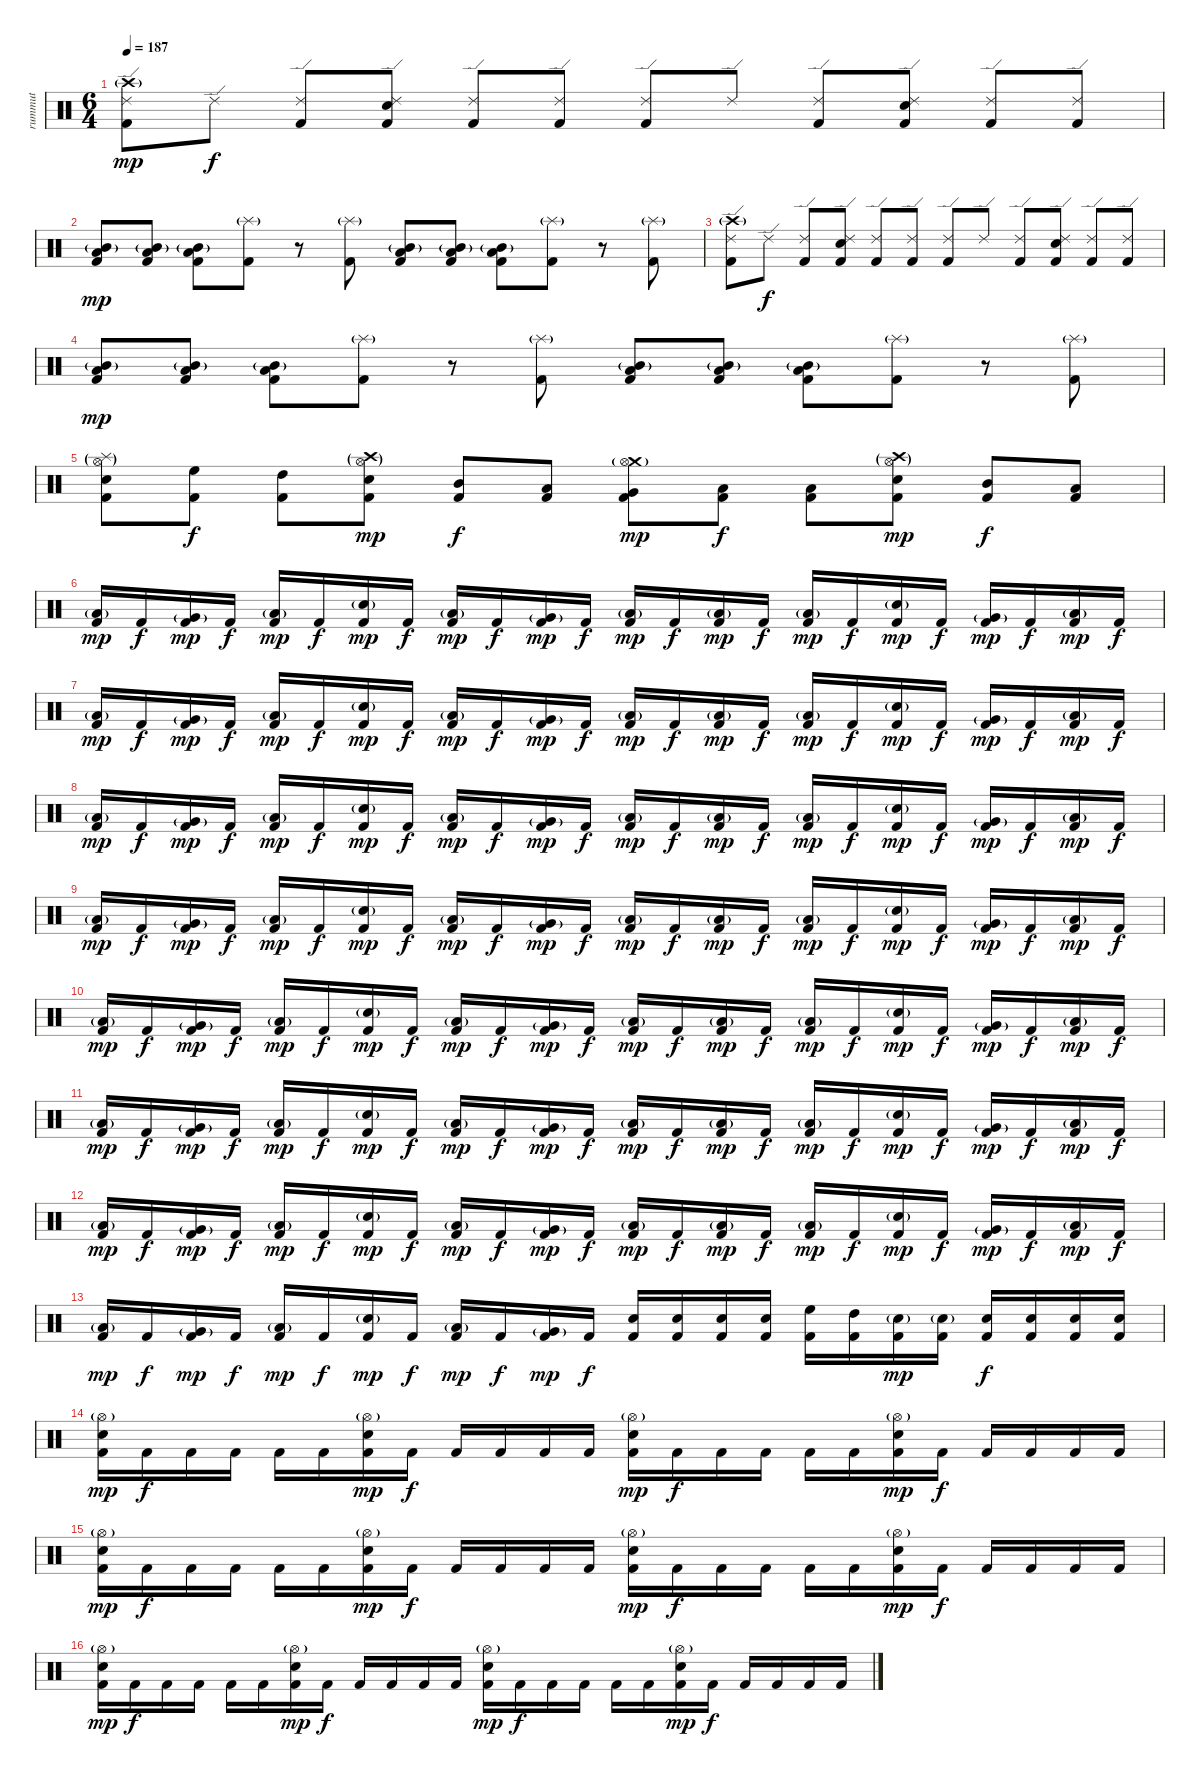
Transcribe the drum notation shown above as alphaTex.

\track ("rummut" "rummut") {instrument percussion}
\staff {score}
\articulation defaults
\ts (6 4)
\tempo 187
\clef neutral
\ks c
("Kick (hit) 2" "Ride (edge) 2" "Crash high (hit)"{g}).8{dy mp} "Ride (edge) 2".8{dy f} ("Kick (hit) 2" "Ride (edge) 2").8 ("Kick (hit) 2" "Ride (edge) 2" "Snare (hit) 2").8 ("Kick (hit) 2" "Ride (edge) 2").8 ("Kick (hit) 2" "Ride (edge) 2").8 ("Kick (hit) 2" "Ride (edge) 2").8 "Ride (edge) 2".8 ("Kick (hit) 2" "Ride (edge) 2").8 ("Kick (hit) 2" "Ride (edge) 2" "Snare (hit) 2").8 ("Kick (hit) 2" "Ride (edge) 2").8 ("Kick (hit) 2" "Ride (edge) 2").8 |
("Kick (hit) 2" "Low Tom (hit)" "Mid Tom (hit)"{g}).8{dy mp} ("Kick (hit) 2" "Low Tom (hit)" "Mid Tom (hit)"{g}).8 ("Kick (hit) 2" "Low Tom (hit)" "Mid Tom (hit)"{g}).8 ("Kick (hit) 2" "Splash (hit)"{g}).8 r.8 ("Kick (hit) 2" "Splash (hit)"{g}).8 ("Kick (hit) 2" "Low Tom (hit)" "Mid Tom (hit)"{g}).8 ("Kick (hit) 2" "Low Tom (hit)" "Mid Tom (hit)"{g}).8 ("Kick (hit) 2" "Low Tom (hit)" "Mid Tom (hit)"{g}).8 ("Kick (hit) 2" "Splash (hit)"{g}).8 r.8 ("Kick (hit) 2" "Splash (hit)"{g}).8 |
("Kick (hit) 2" "Ride (edge) 2" "Crash high (hit)"{g}).8 "Ride (edge) 2".8{dy f} ("Kick (hit) 2" "Ride (edge) 2").8 ("Kick (hit) 2" "Ride (edge) 2" "Snare (hit) 2").8 ("Kick (hit) 2" "Ride (edge) 2").8 ("Kick (hit) 2" "Ride (edge) 2").8 ("Kick (hit) 2" "Ride (edge) 2").8 "Ride (edge) 2".8 ("Kick (hit) 2" "Ride (edge) 2").8 ("Kick (hit) 2" "Ride (edge) 2" "Snare (hit) 2").8 ("Kick (hit) 2" "Ride (edge) 2").8 ("Kick (hit) 2" "Ride (edge) 2").8 |
("Kick (hit) 2" "Low Tom (hit)" "Mid Tom (hit)"{g}).8{dy mp} ("Kick (hit) 2" "Low Tom (hit)" "Mid Tom (hit)"{g}).8 ("Kick (hit) 2" "Low Tom (hit)" "Mid Tom (hit)"{g}).8 ("Kick (hit) 2" "Splash (hit)"{g}).8 r.8 ("Kick (hit) 2" "Splash (hit)"{g}).8 ("Kick (hit) 2" "Low Tom (hit)" "Mid Tom (hit)"{g}).8 ("Kick (hit) 2" "Low Tom (hit)" "Mid Tom (hit)"{g}).8 ("Kick (hit) 2" "Low Tom (hit)" "Mid Tom (hit)"{g}).8 ("Kick (hit) 2" "Splash (hit)"{g}).8 r.8 ("Kick (hit) 2" "Splash (hit)"{g}).8 |
("Kick (hit) 2" "Snare (hit) 2" "Splash (hit)"{g} "Hi-Hat (open)"{g}).8 ("Kick (hit) 2" "High Floor Tom (hit)").8{dy f} ("Kick (hit) 2" "High Tom (hit)").8 ("Kick (hit) 2" "Snare (hit) 2" "Crash high (hit)"{g} "Hi-Hat (open)"{g}).8{dy mp} ("Kick (hit) 2" "Mid Tom (hit)").8{dy f} ("Kick (hit) 2" "Low Tom (hit)").8 ("Kick (hit) 2" "Very Low Tom (hit)" "Crash medium (hit)"{g} "Hi-Hat (open)"{g}).8{dy mp} ("Kick (hit) 2" "Low Floor Tom (hit)").8{dy f} ("Kick (hit) 2" "Low Tom (hit)").8 ("Kick (hit) 2" "Snare (hit) 2" "Crash high (hit)"{g} "Hi-Hat (open)"{g}).8{dy mp} ("Kick (hit) 2" "Mid Tom (hit)").8{dy f} ("Kick (hit) 2" "Low Tom (hit)").8 |
("Kick (hit) 2" "Low Tom (hit)"{g}).16{dy mp} "Kick (hit) 2".16{dy f} ("Kick (hit) 2" "Very Low Tom (hit)"{g}).16{dy mp} "Kick (hit) 2".16{dy f} ("Kick (hit) 2" "Low Floor Tom (hit)"{g}).16{dy mp} "Kick (hit) 2".16{dy f} ("Kick (hit) 2" "Snare (hit) 2"{g}).16{dy mp} "Kick (hit) 2".16{dy f} ("Kick (hit) 2" "Low Tom (hit)"{g}).16{dy mp} "Kick (hit) 2".16{dy f} ("Kick (hit) 2" "Very Low Tom (hit)"{g}).16{dy mp} "Kick (hit) 2".16{dy f} ("Kick (hit) 2" "Low Floor Tom (hit)"{g}).16{dy mp} "Kick (hit) 2".16{dy f} ("Kick (hit) 2" "Low Tom (hit)"{g}).16{dy mp} "Kick (hit) 2".16{dy f} ("Kick (hit) 2" "Low Floor Tom (hit)"{g}).16{dy mp} "Kick (hit) 2".16{dy f} ("Kick (hit) 2" "Snare (hit) 2"{g}).16{dy mp} "Kick (hit) 2".16{dy f} ("Kick (hit) 2" "Very Low Tom (hit)"{g}).16{dy mp} "Kick (hit) 2".16{dy f} ("Kick (hit) 2" "Low Tom (hit)"{g}).16{dy mp} "Kick (hit) 2".16{dy f} |
("Kick (hit) 2" "Low Tom (hit)"{g}).16{dy mp} "Kick (hit) 2".16{dy f} ("Kick (hit) 2" "Very Low Tom (hit)"{g}).16{dy mp} "Kick (hit) 2".16{dy f} ("Kick (hit) 2" "Low Floor Tom (hit)"{g}).16{dy mp} "Kick (hit) 2".16{dy f} ("Kick (hit) 2" "Snare (hit) 2"{g}).16{dy mp} "Kick (hit) 2".16{dy f} ("Kick (hit) 2" "Low Tom (hit)"{g}).16{dy mp} "Kick (hit) 2".16{dy f} ("Kick (hit) 2" "Very Low Tom (hit)"{g}).16{dy mp} "Kick (hit) 2".16{dy f} ("Kick (hit) 2" "Low Floor Tom (hit)"{g}).16{dy mp} "Kick (hit) 2".16{dy f} ("Kick (hit) 2" "Low Tom (hit)"{g}).16{dy mp} "Kick (hit) 2".16{dy f} ("Kick (hit) 2" "Low Floor Tom (hit)"{g}).16{dy mp} "Kick (hit) 2".16{dy f} ("Kick (hit) 2" "Snare (hit) 2"{g}).16{dy mp} "Kick (hit) 2".16{dy f} ("Kick (hit) 2" "Very Low Tom (hit)"{g}).16{dy mp} "Kick (hit) 2".16{dy f} ("Kick (hit) 2" "Low Tom (hit)"{g}).16{dy mp} "Kick (hit) 2".16{dy f} |
("Kick (hit) 2" "Low Tom (hit)"{g}).16{dy mp} "Kick (hit) 2".16{dy f} ("Kick (hit) 2" "Very Low Tom (hit)"{g}).16{dy mp} "Kick (hit) 2".16{dy f} ("Kick (hit) 2" "Low Floor Tom (hit)"{g}).16{dy mp} "Kick (hit) 2".16{dy f} ("Kick (hit) 2" "Snare (hit) 2"{g}).16{dy mp} "Kick (hit) 2".16{dy f} ("Kick (hit) 2" "Low Tom (hit)"{g}).16{dy mp} "Kick (hit) 2".16{dy f} ("Kick (hit) 2" "Very Low Tom (hit)"{g}).16{dy mp} "Kick (hit) 2".16{dy f} ("Kick (hit) 2" "Low Floor Tom (hit)"{g}).16{dy mp} "Kick (hit) 2".16{dy f} ("Kick (hit) 2" "Low Tom (hit)"{g}).16{dy mp} "Kick (hit) 2".16{dy f} ("Kick (hit) 2" "Low Floor Tom (hit)"{g}).16{dy mp} "Kick (hit) 2".16{dy f} ("Kick (hit) 2" "Snare (hit) 2"{g}).16{dy mp} "Kick (hit) 2".16{dy f} ("Kick (hit) 2" "Very Low Tom (hit)"{g}).16{dy mp} "Kick (hit) 2".16{dy f} ("Kick (hit) 2" "Low Tom (hit)"{g}).16{dy mp} "Kick (hit) 2".16{dy f} |
("Kick (hit) 2" "Low Tom (hit)"{g}).16{dy mp} "Kick (hit) 2".16{dy f} ("Kick (hit) 2" "Very Low Tom (hit)"{g}).16{dy mp} "Kick (hit) 2".16{dy f} ("Kick (hit) 2" "Low Floor Tom (hit)"{g}).16{dy mp} "Kick (hit) 2".16{dy f} ("Kick (hit) 2" "Snare (hit) 2"{g}).16{dy mp} "Kick (hit) 2".16{dy f} ("Kick (hit) 2" "Low Tom (hit)"{g}).16{dy mp} "Kick (hit) 2".16{dy f} ("Kick (hit) 2" "Very Low Tom (hit)"{g}).16{dy mp} "Kick (hit) 2".16{dy f} ("Kick (hit) 2" "Low Floor Tom (hit)"{g}).16{dy mp} "Kick (hit) 2".16{dy f} ("Kick (hit) 2" "Low Tom (hit)"{g}).16{dy mp} "Kick (hit) 2".16{dy f} ("Kick (hit) 2" "Low Floor Tom (hit)"{g}).16{dy mp} "Kick (hit) 2".16{dy f} ("Kick (hit) 2" "Snare (hit) 2"{g}).16{dy mp} "Kick (hit) 2".16{dy f} ("Kick (hit) 2" "Very Low Tom (hit)"{g}).16{dy mp} "Kick (hit) 2".16{dy f} ("Kick (hit) 2" "Low Tom (hit)"{g}).16{dy mp} "Kick (hit) 2".16{dy f} |
("Kick (hit) 2" "Low Tom (hit)"{g}).16{dy mp} "Kick (hit) 2".16{dy f} ("Kick (hit) 2" "Very Low Tom (hit)"{g}).16{dy mp} "Kick (hit) 2".16{dy f} ("Kick (hit) 2" "Low Floor Tom (hit)"{g}).16{dy mp} "Kick (hit) 2".16{dy f} ("Kick (hit) 2" "Snare (hit) 2"{g}).16{dy mp} "Kick (hit) 2".16{dy f} ("Kick (hit) 2" "Low Tom (hit)"{g}).16{dy mp} "Kick (hit) 2".16{dy f} ("Kick (hit) 2" "Very Low Tom (hit)"{g}).16{dy mp} "Kick (hit) 2".16{dy f} ("Kick (hit) 2" "Low Floor Tom (hit)"{g}).16{dy mp} "Kick (hit) 2".16{dy f} ("Kick (hit) 2" "Low Tom (hit)"{g}).16{dy mp} "Kick (hit) 2".16{dy f} ("Kick (hit) 2" "Low Floor Tom (hit)"{g}).16{dy mp} "Kick (hit) 2".16{dy f} ("Kick (hit) 2" "Snare (hit) 2"{g}).16{dy mp} "Kick (hit) 2".16{dy f} ("Kick (hit) 2" "Very Low Tom (hit)"{g}).16{dy mp} "Kick (hit) 2".16{dy f} ("Kick (hit) 2" "Low Tom (hit)"{g}).16{dy mp} "Kick (hit) 2".16{dy f} |
("Kick (hit) 2" "Low Tom (hit)"{g}).16{dy mp} "Kick (hit) 2".16{dy f} ("Kick (hit) 2" "Very Low Tom (hit)"{g}).16{dy mp} "Kick (hit) 2".16{dy f} ("Kick (hit) 2" "Low Floor Tom (hit)"{g}).16{dy mp} "Kick (hit) 2".16{dy f} ("Kick (hit) 2" "Snare (hit) 2"{g}).16{dy mp} "Kick (hit) 2".16{dy f} ("Kick (hit) 2" "Low Tom (hit)"{g}).16{dy mp} "Kick (hit) 2".16{dy f} ("Kick (hit) 2" "Very Low Tom (hit)"{g}).16{dy mp} "Kick (hit) 2".16{dy f} ("Kick (hit) 2" "Low Floor Tom (hit)"{g}).16{dy mp} "Kick (hit) 2".16{dy f} ("Kick (hit) 2" "Low Tom (hit)"{g}).16{dy mp} "Kick (hit) 2".16{dy f} ("Kick (hit) 2" "Low Floor Tom (hit)"{g}).16{dy mp} "Kick (hit) 2".16{dy f} ("Kick (hit) 2" "Snare (hit) 2"{g}).16{dy mp} "Kick (hit) 2".16{dy f} ("Kick (hit) 2" "Very Low Tom (hit)"{g}).16{dy mp} "Kick (hit) 2".16{dy f} ("Kick (hit) 2" "Low Tom (hit)"{g}).16{dy mp} "Kick (hit) 2".16{dy f} |
("Kick (hit) 2" "Low Tom (hit)"{g}).16{dy mp} "Kick (hit) 2".16{dy f} ("Kick (hit) 2" "Very Low Tom (hit)"{g}).16{dy mp} "Kick (hit) 2".16{dy f} ("Kick (hit) 2" "Low Floor Tom (hit)"{g}).16{dy mp} "Kick (hit) 2".16{dy f} ("Kick (hit) 2" "Snare (hit) 2"{g}).16{dy mp} "Kick (hit) 2".16{dy f} ("Kick (hit) 2" "Low Tom (hit)"{g}).16{dy mp} "Kick (hit) 2".16{dy f} ("Kick (hit) 2" "Very Low Tom (hit)"{g}).16{dy mp} "Kick (hit) 2".16{dy f} ("Kick (hit) 2" "Low Floor Tom (hit)"{g}).16{dy mp} "Kick (hit) 2".16{dy f} ("Kick (hit) 2" "Low Tom (hit)"{g}).16{dy mp} "Kick (hit) 2".16{dy f} ("Kick (hit) 2" "Low Floor Tom (hit)"{g}).16{dy mp} "Kick (hit) 2".16{dy f} ("Kick (hit) 2" "Snare (hit) 2"{g}).16{dy mp} "Kick (hit) 2".16{dy f} ("Kick (hit) 2" "Very Low Tom (hit)"{g}).16{dy mp} "Kick (hit) 2".16{dy f} ("Kick (hit) 2" "Low Tom (hit)"{g}).16{dy mp} "Kick (hit) 2".16{dy f} |
("Kick (hit) 2" "Low Tom (hit)"{g}).16{dy mp} "Kick (hit) 2".16{dy f} ("Kick (hit) 2" "Very Low Tom (hit)"{g}).16{dy mp} "Kick (hit) 2".16{dy f} ("Kick (hit) 2" "Low Floor Tom (hit)"{g}).16{dy mp} "Kick (hit) 2".16{dy f} ("Kick (hit) 2" "Snare (hit) 2"{g}).16{dy mp} "Kick (hit) 2".16{dy f} ("Kick (hit) 2" "Low Tom (hit)"{g}).16{dy mp} "Kick (hit) 2".16{dy f} ("Kick (hit) 2" "Very Low Tom (hit)"{g}).16{dy mp} "Kick (hit) 2".16{dy f} ("Kick (hit) 2" "Snare (hit) 2").16 ("Kick (hit) 2" "Snare (hit) 2").16 ("Kick (hit) 2" "Snare (hit) 2").16 ("Kick (hit) 2" "Snare (hit) 2").16 ("Kick (hit) 2" "High Floor Tom (hit)").16 ("Kick (hit) 2" "High Tom (hit)").16 ("Kick (hit) 2" "Snare (hit) 2"{g}).16{dy mp} ("Kick (hit) 2" "Snare (hit) 2"{g}).16 ("Kick (hit) 2" "Snare (hit) 2").16{dy f} ("Kick (hit) 2" "Snare (hit) 2").16 ("Kick (hit) 2" "Snare (hit) 2").16 ("Kick (hit) 2" "Snare (hit) 2").16 |
("Kick (hit) 2" "Hi-Hat (open)"{g} "Snare (hit) 2").16{dy mp} "Kick (hit) 2".16{dy f} "Kick (hit) 2".16 "Kick (hit) 2".16 "Kick (hit) 2".16 "Kick (hit) 2".16 ("Kick (hit) 2" "Hi-Hat (open)"{g} "Snare (hit) 2").16{dy mp} "Kick (hit) 2".16{dy f} "Kick (hit) 2".16 "Kick (hit) 2".16 "Kick (hit) 2".16 "Kick (hit) 2".16 ("Kick (hit) 2" "Hi-Hat (open)"{g} "Snare (hit) 2").16{dy mp} "Kick (hit) 2".16{dy f} "Kick (hit) 2".16 "Kick (hit) 2".16 "Kick (hit) 2".16 "Kick (hit) 2".16 ("Kick (hit) 2" "Hi-Hat (open)"{g} "Snare (hit) 2").16{dy mp} "Kick (hit) 2".16{dy f} "Kick (hit) 2".16 "Kick (hit) 2".16 "Kick (hit) 2".16 "Kick (hit) 2".16 |
("Kick (hit) 2" "Hi-Hat (open)"{g} "Snare (hit) 2").16{dy mp} "Kick (hit) 2".16{dy f} "Kick (hit) 2".16 "Kick (hit) 2".16 "Kick (hit) 2".16 "Kick (hit) 2".16 ("Kick (hit) 2" "Hi-Hat (open)"{g} "Snare (hit) 2").16{dy mp} "Kick (hit) 2".16{dy f} "Kick (hit) 2".16 "Kick (hit) 2".16 "Kick (hit) 2".16 "Kick (hit) 2".16 ("Kick (hit) 2" "Hi-Hat (open)"{g} "Snare (hit) 2").16{dy mp} "Kick (hit) 2".16{dy f} "Kick (hit) 2".16 "Kick (hit) 2".16 "Kick (hit) 2".16 "Kick (hit) 2".16 ("Kick (hit) 2" "Hi-Hat (open)"{g} "Snare (hit) 2").16{dy mp} "Kick (hit) 2".16{dy f} "Kick (hit) 2".16 "Kick (hit) 2".16 "Kick (hit) 2".16 "Kick (hit) 2".16 |
("Kick (hit) 2" "Hi-Hat (open)"{g} "Snare (hit) 2").16{dy mp} "Kick (hit) 2".16{dy f} "Kick (hit) 2".16 "Kick (hit) 2".16 "Kick (hit) 2".16 "Kick (hit) 2".16 ("Kick (hit) 2" "Hi-Hat (open)"{g} "Snare (hit) 2").16{dy mp} "Kick (hit) 2".16{dy f} "Kick (hit) 2".16 "Kick (hit) 2".16 "Kick (hit) 2".16 "Kick (hit) 2".16 ("Kick (hit) 2" "Hi-Hat (open)"{g} "Snare (hit) 2").16{dy mp} "Kick (hit) 2".16{dy f} "Kick (hit) 2".16 "Kick (hit) 2".16 "Kick (hit) 2".16 "Kick (hit) 2".16 ("Kick (hit) 2" "Hi-Hat (open)"{g} "Snare (hit) 2").16{dy mp} "Kick (hit) 2".16{dy f} "Kick (hit) 2".16 "Kick (hit) 2".16 "Kick (hit) 2".16 "Kick (hit) 2".16
